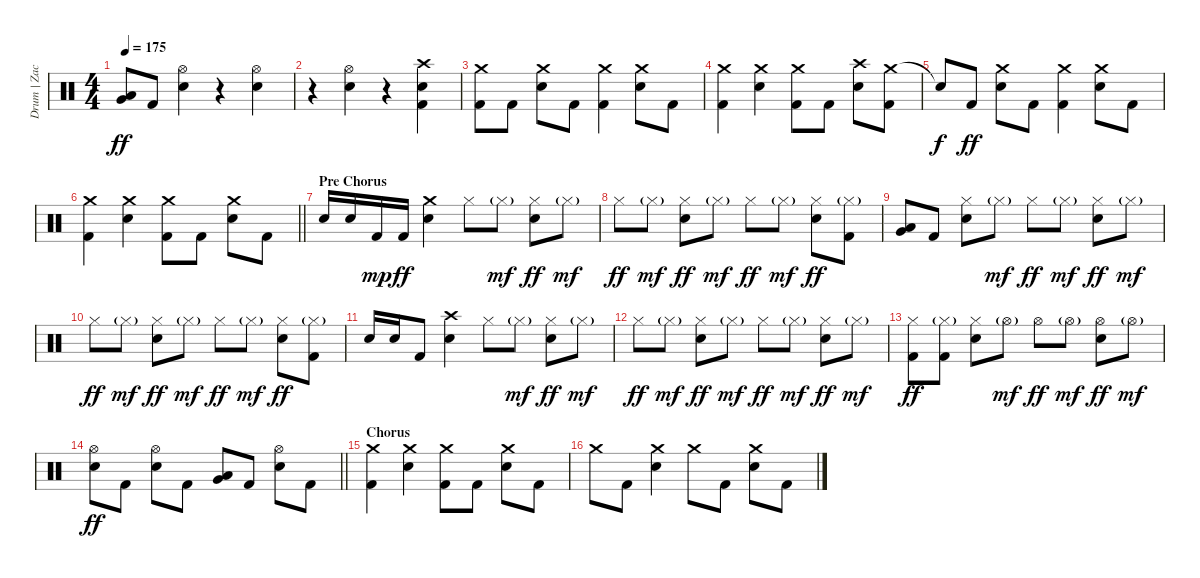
\track ("Drum | Zac" "Drum | Zac") {instrument percussion}
\staff {score}
\articulation defaults
\ts (4 4)
\tempo 175
\clef neutral
\ks c
("Low Tom (hit)" "Very Low Tom (hit)").8{dy ff} "Kick (hit) 2".8 ("Hi-Hat (open)" "Electric Snare (hit)").4 r.4 ("Hi-Hat (open)" "Electric Snare (hit)").4 |
r.4 ("Hi-Hat (open)" "Electric Snare (hit)").4 r.4 ("Crash high (hit)" "Electric Snare (hit)" "Kick (hit) 2").4 |
("Crash medium (hit)" "Kick (hit) 2").8 "Kick (hit) 2".8 ("Crash medium (hit)" "Electric Snare (hit)").8 "Kick (hit) 2".8 ("Crash medium (hit)" "Kick (hit) 2").4 ("Crash medium (hit)" "Electric Snare (hit)").8 "Kick (hit) 2".8 |
("Crash medium (hit)" "Kick (hit) 2").4 ("Crash medium (hit)" "Electric Snare (hit)").4 ("Crash medium (hit)" "Kick (hit) 2").8 "Kick (hit) 2".8 ("Crash high (hit)" "Electric Snare (hit)").8 ("Crash medium (hit)" "Kick (hit) 2").8 |
"Snare (hit)"{t}.8{dy f} "Kick (hit) 2".8{dy ff} ("Crash medium (hit)" "Electric Snare (hit)").8 "Kick (hit) 2".8 ("Crash medium (hit)" "Kick (hit) 2").4 ("Crash medium (hit)" "Electric Snare (hit)").8 "Kick (hit) 2".8 |
\barLineRight lightlight
("Crash medium (hit)" "Kick (hit) 2").4 ("Crash medium (hit)" "Electric Snare (hit)").4 ("Crash medium (hit)" "Kick (hit) 2").8 "Kick (hit) 2".8 ("Crash medium (hit)" "Electric Snare (hit)").8 "Kick (hit) 2".8 |
\section ("" "Pre Chorus")
"Electric Snare (hit)".16 "Electric Snare (hit)".16 "Kick (hit) 2".16{dy mp} "Kick (hit) 2".16{dy ff} ("Crash medium (hit)" "Electric Snare (hit)").4 "Hi-Hat (closed)".8 "Hi-Hat (closed)"{g}.8{dy mf} ("Hi-Hat (closed)" "Electric Snare (hit)").8{dy ff} "Hi-Hat (closed)"{g}.8{dy mf} |
"Hi-Hat (closed)".8{dy ff} "Hi-Hat (closed)"{g}.8{dy mf} ("Hi-Hat (closed)" "Electric Snare (hit)").8{dy ff} "Hi-Hat (closed)"{g}.8{dy mf} "Hi-Hat (closed)".8{dy ff} "Hi-Hat (closed)"{g}.8{dy mf} ("Hi-Hat (closed)" "Electric Snare (hit)").8{dy ff} ("Hi-Hat (closed)"{g} "Kick (hit) 2").8 |
("Very Low Tom (hit)" "Low Tom (hit)").8 "Kick (hit) 2".8 ("Hi-Hat (closed)" "Electric Snare (hit)").8 "Hi-Hat (closed)"{g}.8{dy mf} "Hi-Hat (closed)".8{dy ff} "Hi-Hat (closed)"{g}.8{dy mf} ("Hi-Hat (closed)" "Electric Snare (hit)").8{dy ff} "Hi-Hat (closed)"{g}.8{dy mf} |
"Hi-Hat (closed)".8{dy ff} "Hi-Hat (closed)"{g}.8{dy mf} ("Hi-Hat (closed)" "Electric Snare (hit)").8{dy ff} "Hi-Hat (closed)"{g}.8{dy mf} "Hi-Hat (closed)".8{dy ff} "Hi-Hat (closed)"{g}.8{dy mf} ("Hi-Hat (closed)" "Electric Snare (hit)").8{dy ff} ("Hi-Hat (closed)"{g} "Kick (hit) 2").8 |
"Electric Snare (hit)".16 "Electric Snare (hit)".16 "Kick (hit) 2".8 ("Crash high (hit)" "Electric Snare (hit)").4 "Hi-Hat (closed)".8 "Hi-Hat (closed)"{g}.8{dy mf} ("Hi-Hat (closed)" "Electric Snare (hit)").8{dy ff} "Hi-Hat (closed)"{g}.8{dy mf} |
"Hi-Hat (closed)".8{dy ff} "Hi-Hat (closed)"{g}.8{dy mf} ("Hi-Hat (closed)" "Electric Snare (hit)").8{dy ff} "Hi-Hat (closed)"{g}.8{dy mf} "Hi-Hat (closed)".8{dy ff} "Hi-Hat (closed)"{g}.8{dy mf} ("Hi-Hat (closed)" "Electric Snare (hit)").8{dy ff} "Hi-Hat (closed)"{g}.8{dy mf} |
("Hi-Hat (closed)" "Kick (hit) 2").8{dy ff} ("Hi-Hat (closed)"{g} "Kick (hit) 2").8 ("Hi-Hat (closed)" "Electric Snare (hit)").8 "Hi-Hat (open)"{g}.8{dy mf} "Hi-Hat (open)".8{dy ff} "Hi-Hat (open)"{g}.8{dy mf} ("Hi-Hat (open)" "Electric Snare (hit)").8{dy ff} "Hi-Hat (open)"{g}.8{dy mf} |
\barLineRight lightlight
("Hi-Hat (open)" "Electric Snare (hit)").8{dy ff} "Kick (hit) 2".8 ("Hi-Hat (open)" "Electric Snare (hit)").8 "Kick (hit) 2".8 ("Low Tom (hit)" "Very Low Tom (hit)").8 "Kick (hit) 2".8 ("Hi-Hat (open)" "Electric Snare (hit)").8 "Kick (hit) 2".8 |
\section ("" "Chorus")
("Crash medium (hit)" "Kick (hit) 2").4 ("Crash medium (hit)" "Electric Snare (hit)").4 ("Crash medium (hit)" "Kick (hit) 2").8 "Kick (hit) 2".8 ("Crash medium (hit)" "Electric Snare (hit)").8 "Kick (hit) 2".8 |
"Crash medium (hit)".8 "Kick (hit) 2".8 ("Crash medium (hit)" "Electric Snare (hit)").4 "Crash medium (hit)".8 "Kick (hit) 2".8 ("Crash medium (hit)" "Electric Snare (hit)").8 "Kick (hit) 2".8
